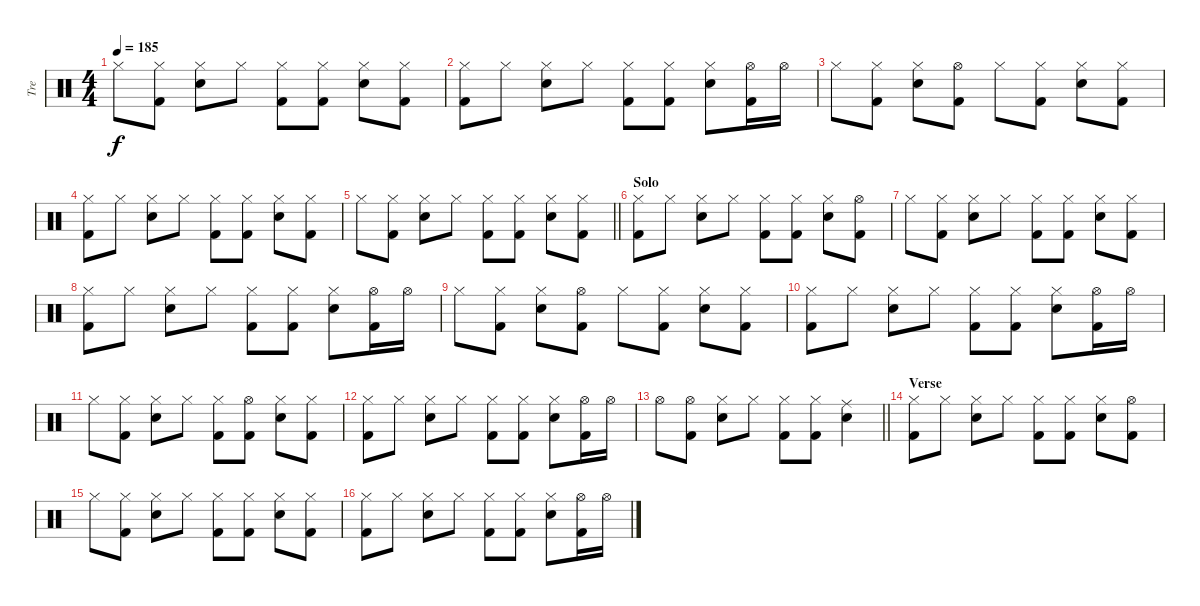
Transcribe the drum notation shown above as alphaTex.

\track ("Tre" "Tre") {instrument percussion}
\staff {score}
\articulation defaults
\ts (4 4)
\tempo 185
\clef neutral
\ks c "Hi-Hat (closed)".8{dy f}
("Hi-Hat (closed)" "Kick (hit) 2").8 ("Hi-Hat (closed)" "Electric Snare (hit)").8 "Hi-Hat (closed)".8 ("Hi-Hat (closed)" "Kick (hit) 2").8 ("Hi-Hat (closed)" "Kick (hit) 2").8 ("Hi-Hat (closed)" "Electric Snare (hit)").8 ("Hi-Hat (closed)" "Kick (hit) 2").8 |
("Hi-Hat (closed)" "Kick (hit) 2").8 "Hi-Hat (closed)".8 ("Hi-Hat (closed)" "Electric Snare (hit)").8 "Hi-Hat (closed)".8 ("Hi-Hat (closed)" "Kick (hit) 2").8 ("Hi-Hat (closed)" "Kick (hit) 2").8 ("Hi-Hat (closed)" "Electric Snare (hit)").8 ("Hi-Hat (open)" "Kick (hit) 2").16 "Hi-Hat (open)".16 |
"Hi-Hat (closed)".8 ("Hi-Hat (closed)" "Kick (hit) 2").8 ("Hi-Hat (closed)" "Electric Snare (hit)").8 ("Hi-Hat (open)" "Kick (hit) 2").8 "Hi-Hat (closed)".8 ("Hi-Hat (closed)" "Kick (hit) 2").8 ("Hi-Hat (closed)" "Electric Snare (hit)").8 ("Hi-Hat (closed)" "Kick (hit) 2").8 |
("Hi-Hat (closed)" "Kick (hit) 2").8 "Hi-Hat (closed)".8 ("Hi-Hat (closed)" "Electric Snare (hit)").8 "Hi-Hat (closed)".8 ("Hi-Hat (closed)" "Kick (hit) 2").8 ("Hi-Hat (closed)" "Kick (hit) 2").8 ("Hi-Hat (closed)" "Electric Snare (hit)").8 ("Hi-Hat (closed)" "Kick (hit) 2").8 |
\barLineRight lightlight "Hi-Hat (closed)".8
("Hi-Hat (closed)" "Kick (hit) 2").8 ("Hi-Hat (closed)" "Electric Snare (hit)").8 "Hi-Hat (closed)".8 ("Hi-Hat (closed)" "Kick (hit) 2").8 ("Hi-Hat (closed)" "Kick (hit) 2").8 ("Hi-Hat (closed)" "Electric Snare (hit)").8 ("Hi-Hat (closed)" "Kick (hit) 2").8 |
\section ("" "Solo")
("Hi-Hat (closed)" "Kick (hit) 2").8 "Hi-Hat (closed)".8 ("Hi-Hat (closed)" "Electric Snare (hit)").8 "Hi-Hat (closed)".8 ("Hi-Hat (closed)" "Kick (hit) 2").8 ("Hi-Hat (closed)" "Kick (hit) 2").8 ("Hi-Hat (closed)" "Electric Snare (hit)").8 ("Hi-Hat (open)" "Kick (hit) 2").8 |
"Hi-Hat (closed)".8 ("Hi-Hat (closed)" "Kick (hit) 2").8 ("Hi-Hat (closed)" "Electric Snare (hit)").8 "Hi-Hat (closed)".8 ("Hi-Hat (closed)" "Kick (hit) 2").8 ("Hi-Hat (closed)" "Kick (hit) 2").8 ("Hi-Hat (closed)" "Electric Snare (hit)").8 ("Hi-Hat (closed)" "Kick (hit) 2").8 |
("Hi-Hat (closed)" "Kick (hit) 2").8 "Hi-Hat (closed)".8 ("Hi-Hat (closed)" "Electric Snare (hit)").8 "Hi-Hat (closed)".8 ("Hi-Hat (closed)" "Kick (hit) 2").8 ("Hi-Hat (closed)" "Kick (hit) 2").8 ("Hi-Hat (closed)" "Electric Snare (hit)").8 ("Hi-Hat (open)" "Kick (hit) 2").16 "Hi-Hat (open)".16 |
"Hi-Hat (closed)".8 ("Hi-Hat (closed)" "Kick (hit) 2").8 ("Hi-Hat (closed)" "Electric Snare (hit)").8 ("Hi-Hat (open)" "Kick (hit) 2").8 "Hi-Hat (closed)".8 ("Hi-Hat (closed)" "Kick (hit) 2").8 ("Hi-Hat (closed)" "Electric Snare (hit)").8 ("Hi-Hat (closed)" "Kick (hit) 2").8 |
("Hi-Hat (closed)" "Kick (hit) 2").8 "Hi-Hat (closed)".8 ("Hi-Hat (closed)" "Electric Snare (hit)").8 "Hi-Hat (closed)".8 ("Hi-Hat (closed)" "Kick (hit) 2").8 ("Hi-Hat (closed)" "Kick (hit) 2").8 ("Hi-Hat (closed)" "Electric Snare (hit)").8 ("Hi-Hat (open)" "Kick (hit) 2").16 "Hi-Hat (open)".16 |
"Hi-Hat (closed)".8 ("Hi-Hat (closed)" "Kick (hit) 2").8 ("Hi-Hat (closed)" "Electric Snare (hit)").8 "Hi-Hat (closed)".8 ("Hi-Hat (closed)" "Kick (hit) 2").8 ("Hi-Hat (open)" "Kick (hit) 2").8 ("Hi-Hat (closed)" "Electric Snare (hit)").8 ("Hi-Hat (closed)" "Kick (hit) 2").8 |
("Hi-Hat (closed)" "Kick (hit) 2").8 "Hi-Hat (closed)".8 ("Hi-Hat (closed)" "Electric Snare (hit)").8 "Hi-Hat (closed)".8 ("Hi-Hat (closed)" "Kick (hit) 2").8 ("Hi-Hat (closed)" "Kick (hit) 2").8 ("Hi-Hat (closed)" "Electric Snare (hit)").8 ("Hi-Hat (open)" "Kick (hit) 2").16 "Hi-Hat (open)".16 |
\barLineRight lightlight "Hi-Hat (open)".8
("Hi-Hat (open)" "Kick (hit) 2").8 ("Hi-Hat (closed)" "Electric Snare (hit)").8 "Hi-Hat (closed)".8 ("Hi-Hat (closed)" "Kick (hit) 2").8 ("Hi-Hat (closed)" "Kick (hit) 2").8 ("Ride (middle)" "Electric Snare (hit)").4 |
\section ("" "Verse")
("Hi-Hat (closed)" "Kick (hit) 2").8 "Hi-Hat (closed)".8 ("Hi-Hat (closed)" "Electric Snare (hit)").8 "Hi-Hat (closed)".8 ("Hi-Hat (closed)" "Kick (hit) 2").8 ("Hi-Hat (closed)" "Kick (hit) 2").8 ("Hi-Hat (closed)" "Electric Snare (hit)").8 ("Hi-Hat (open)" "Kick (hit) 2").8 |
"Hi-Hat (closed)".8 ("Hi-Hat (closed)" "Kick (hit) 2").8 ("Hi-Hat (closed)" "Electric Snare (hit)").8 "Hi-Hat (closed)".8 ("Hi-Hat (closed)" "Kick (hit) 2").8 ("Hi-Hat (closed)" "Kick (hit) 2").8 ("Hi-Hat (closed)" "Electric Snare (hit)").8 ("Hi-Hat (closed)" "Kick (hit) 2").8 |
("Hi-Hat (closed)" "Kick (hit) 2").8 "Hi-Hat (closed)".8 ("Hi-Hat (closed)" "Electric Snare (hit)").8 "Hi-Hat (closed)".8 ("Hi-Hat (closed)" "Kick (hit) 2").8 ("Hi-Hat (closed)" "Kick (hit) 2").8 ("Hi-Hat (closed)" "Electric Snare (hit)").8 ("Hi-Hat (open)" "Kick (hit) 2").16 "Hi-Hat (open)".16
